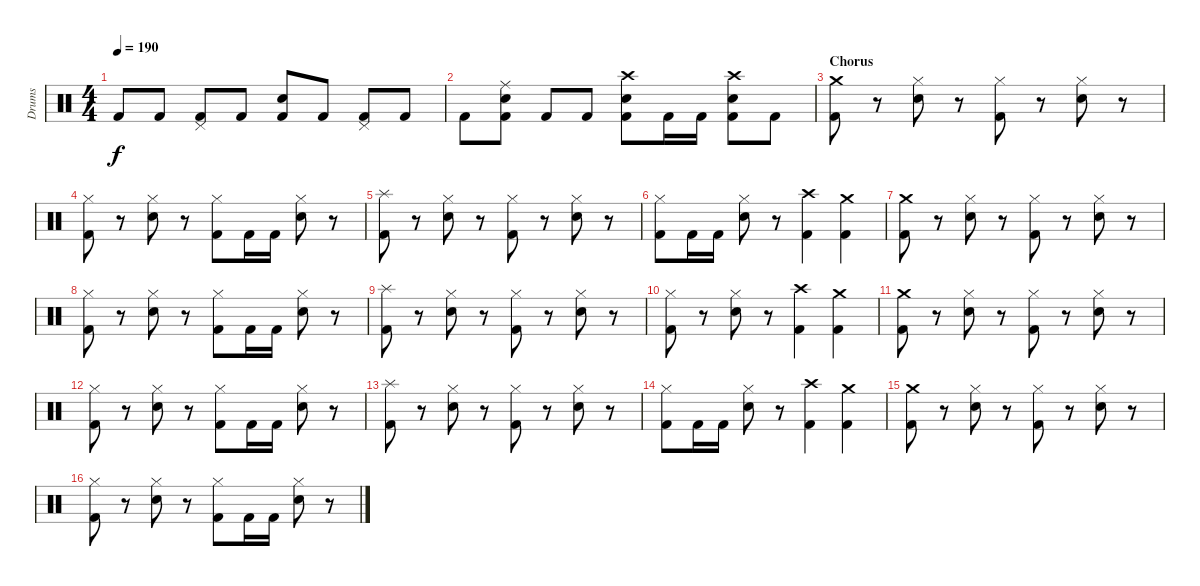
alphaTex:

\track ("Drums" "Drums") {instrument percussion}
\staff {score}
\articulation defaults
\ts (4 4)
\tempo 190
\clef neutral
\ks c "Kick (hit) 2".8{dy f} "Kick (hit) 2".8
("Pedal Hi-Hat (hit)" "Kick (hit) 2").8 "Kick (hit) 2".8 ("Snare (hit) 2" "Kick (hit) 2").8 "Kick (hit) 2".8 ("Pedal Hi-Hat (hit)" "Kick (hit) 2").8 "Kick (hit) 2".8 |
"Kick (hit) 2".8 ("Ride (middle)" "Snare (hit) 2" "Kick (hit) 2").8 "Kick (hit) 2".8 "Kick (hit) 2".8 ("Crash high (hit)" "Snare (hit) 2" "Kick (hit) 2").8 "Kick (hit) 2".16 "Kick (hit) 2".16 ("Crash high (hit)" "Snare (hit) 2" "Kick (hit) 2").8 "Kick (hit) 2".8 |
\section ("" "Chorus")
("Crash medium (hit)" "Kick (hit) 2").8 r.8 ("Hi-Hat (closed)" "Snare (hit) 2").8 r.8 ("Hi-Hat (closed)" "Kick (hit) 2").8 r.8 ("Hi-Hat (closed)" "Snare (hit) 2").8 r.8 |
("Hi-Hat (closed)" "Kick (hit) 2").8 r.8 ("Hi-Hat (closed)" "Snare (hit) 2").8 r.8 ("Hi-Hat (closed)" "Kick (hit) 2").8 "Kick (hit) 2".16 "Kick (hit) 2".16 ("Hi-Hat (closed)" "Snare (hit) 2").8 r.8 |
("Splash (hit)" "Kick (hit) 2").8 r.8 ("Hi-Hat (closed)" "Snare (hit) 2").8 r.8 ("Hi-Hat (closed)" "Kick (hit) 2").8 r.8 ("Hi-Hat (closed)" "Snare (hit) 2").8 r.8 |
("Hi-Hat (closed)" "Kick (hit) 2").8 "Kick (hit) 2".16 "Kick (hit) 2".16 ("Hi-Hat (closed)" "Snare (hit) 2").8 r.8 ("Crash high (hit)" "Kick (hit) 2").4 ("Crash medium (hit)" "Kick (hit) 2").4 |
("Crash medium (hit)" "Kick (hit) 2").8 r.8 ("Hi-Hat (closed)" "Snare (hit) 2").8 r.8 ("Hi-Hat (closed)" "Kick (hit) 2").8 r.8 ("Hi-Hat (closed)" "Snare (hit) 2").8 r.8 |
("Hi-Hat (closed)" "Kick (hit) 2").8 r.8 ("Hi-Hat (closed)" "Snare (hit) 2").8 r.8 ("Hi-Hat (closed)" "Kick (hit) 2").8 "Kick (hit) 2".16 "Kick (hit) 2".16 ("Hi-Hat (closed)" "Snare (hit) 2").8 r.8 |
("Splash (hit)" "Kick (hit) 2").8 r.8 ("Hi-Hat (closed)" "Snare (hit) 2").8 r.8 ("Hi-Hat (closed)" "Kick (hit) 2").8 r.8 ("Hi-Hat (closed)" "Snare (hit) 2").8 r.8 |
("Hi-Hat (closed)" "Kick (hit) 2").8 r.8 ("Hi-Hat (closed)" "Snare (hit) 2").8 r.8 ("Crash high (hit)" "Kick (hit) 2").4 ("Crash medium (hit)" "Kick (hit) 2").4 |
("Crash medium (hit)" "Kick (hit) 2").8 r.8 ("Hi-Hat (closed)" "Snare (hit) 2").8 r.8 ("Hi-Hat (closed)" "Kick (hit) 2").8 r.8 ("Hi-Hat (closed)" "Snare (hit) 2").8 r.8 |
("Hi-Hat (closed)" "Kick (hit) 2").8 r.8 ("Hi-Hat (closed)" "Snare (hit) 2").8 r.8 ("Hi-Hat (closed)" "Kick (hit) 2").8 "Kick (hit) 2".16 "Kick (hit) 2".16 ("Hi-Hat (closed)" "Snare (hit) 2").8 r.8 |
("Splash (hit)" "Kick (hit) 2").8 r.8 ("Hi-Hat (closed)" "Snare (hit) 2").8 r.8 ("Hi-Hat (closed)" "Kick (hit) 2").8 r.8 ("Hi-Hat (closed)" "Snare (hit) 2").8 r.8 |
("Hi-Hat (closed)" "Kick (hit) 2").8 "Kick (hit) 2".16 "Kick (hit) 2".16 ("Hi-Hat (closed)" "Snare (hit) 2").8 r.8 ("Crash high (hit)" "Kick (hit) 2").4 ("Crash medium (hit)" "Kick (hit) 2").4 |
("Crash medium (hit)" "Kick (hit) 2").8 r.8 ("Hi-Hat (closed)" "Snare (hit) 2").8 r.8 ("Hi-Hat (closed)" "Kick (hit) 2").8 r.8 ("Hi-Hat (closed)" "Snare (hit) 2").8 r.8 |
("Hi-Hat (closed)" "Kick (hit) 2").8 r.8 ("Hi-Hat (closed)" "Snare (hit) 2").8 r.8 ("Hi-Hat (closed)" "Kick (hit) 2").8 "Kick (hit) 2".16 "Kick (hit) 2".16 ("Hi-Hat (closed)" "Snare (hit) 2").8 r.8
